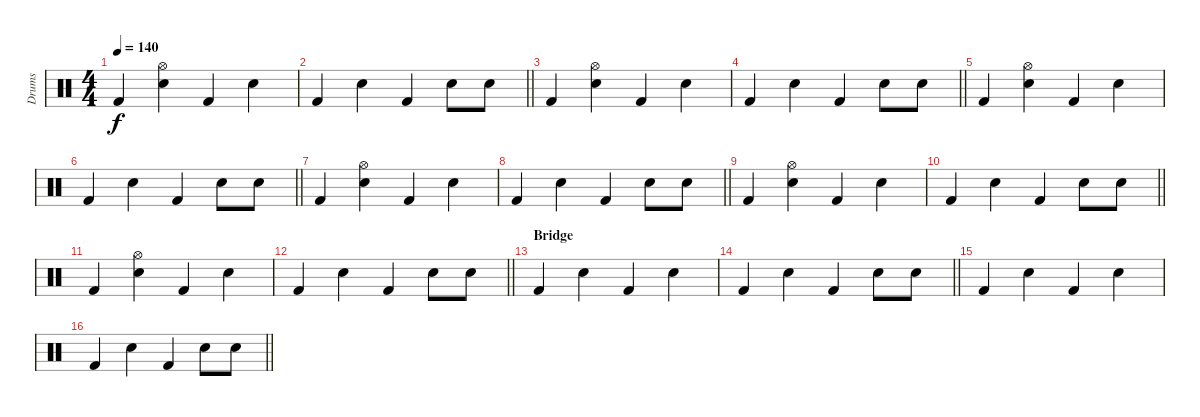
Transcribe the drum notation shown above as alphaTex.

\track ("Drums" "Drums") {instrument percussion}
\staff {score}
\articulation defaults
\ts (4 4)
\tempo 140
\clef neutral
\ks c "Kick (hit) 2".4{dy f}
("Snare (hit) 2" "Hi-Hat (open)").4 "Kick (hit) 2".4 "Snare (hit) 2".4 |
\barLineRight lightlight "Kick (hit) 2".4 "Snare (hit) 2".4 "Kick (hit) 2".4 "Snare (hit) 2".8 "Snare (hit) 2".8
|
"Kick (hit) 2".4 ("Snare (hit) 2" "Hi-Hat (open)").4 "Kick (hit) 2".4 "Snare (hit) 2".4 |
\barLineRight lightlight "Kick (hit) 2".4 "Snare (hit) 2".4 "Kick (hit) 2".4 "Snare (hit) 2".8 "Snare (hit) 2".8
|
"Kick (hit) 2".4 ("Snare (hit) 2" "Hi-Hat (open)").4 "Kick (hit) 2".4 "Snare (hit) 2".4 |
\barLineRight lightlight "Kick (hit) 2".4 "Snare (hit) 2".4 "Kick (hit) 2".4 "Snare (hit) 2".8 "Snare (hit) 2".8
|
"Kick (hit) 2".4 ("Snare (hit) 2" "Hi-Hat (open)").4 "Kick (hit) 2".4 "Snare (hit) 2".4 |
\barLineRight lightlight "Kick (hit) 2".4 "Snare (hit) 2".4 "Kick (hit) 2".4 "Snare (hit) 2".8 "Snare (hit) 2".8
|
"Kick (hit) 2".4 ("Snare (hit) 2" "Hi-Hat (open)").4 "Kick (hit) 2".4 "Snare (hit) 2".4 |
\barLineRight lightlight "Kick (hit) 2".4 "Snare (hit) 2".4 "Kick (hit) 2".4 "Snare (hit) 2".8 "Snare (hit) 2".8
|
"Kick (hit) 2".4 ("Snare (hit) 2" "Hi-Hat (open)").4 "Kick (hit) 2".4 "Snare (hit) 2".4 |
\barLineRight lightlight "Kick (hit) 2".4 "Snare (hit) 2".4 "Kick (hit) 2".4 "Snare (hit) 2".8 "Snare (hit) 2".8
|
\section ("" "Bridge")
"Kick (hit) 2".4 "Snare (hit) 2".4 "Kick (hit) 2".4 "Snare (hit) 2".4 |
\barLineRight lightlight "Kick (hit) 2".4 "Snare (hit) 2".4 "Kick (hit) 2".4 "Snare (hit) 2".8 "Snare (hit) 2".8
|
"Kick (hit) 2".4 "Snare (hit) 2".4 "Kick (hit) 2".4 "Snare (hit) 2".4 |
\barLineRight lightlight "Kick (hit) 2".4 "Snare (hit) 2".4 "Kick (hit) 2".4 "Snare (hit) 2".8 "Snare (hit) 2".8
